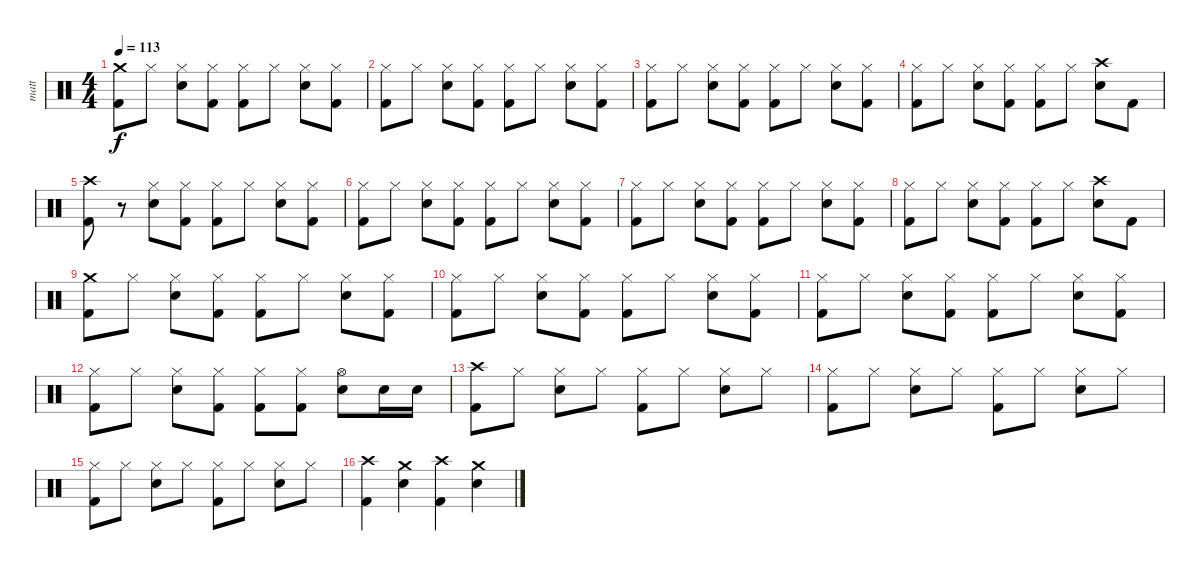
\track ("matt" "matt") {instrument percussion}
\staff {score}
\articulation defaults
\ts (4 4)
\tempo 113
\clef neutral
\ks c
("Crash medium (hit)" "Kick (hit) 2").8{dy f} "Hi-Hat (closed)".8 ("Hi-Hat (closed)" "Electric Snare (hit)").8 ("Hi-Hat (closed)" "Kick (hit) 2").8 ("Hi-Hat (closed)" "Kick (hit) 2").8 "Hi-Hat (closed)".8 ("Hi-Hat (closed)" "Electric Snare (hit)").8 ("Hi-Hat (closed)" "Kick (hit) 2").8 |
("Hi-Hat (closed)" "Kick (hit) 2").8 "Hi-Hat (closed)".8 ("Hi-Hat (closed)" "Electric Snare (hit)").8 ("Hi-Hat (closed)" "Kick (hit) 2").8 ("Hi-Hat (closed)" "Kick (hit) 2").8 "Hi-Hat (closed)".8 ("Hi-Hat (closed)" "Electric Snare (hit)").8 ("Hi-Hat (closed)" "Kick (hit) 2").8 |
("Hi-Hat (closed)" "Kick (hit) 2").8 "Hi-Hat (closed)".8 ("Hi-Hat (closed)" "Electric Snare (hit)").8 ("Hi-Hat (closed)" "Kick (hit) 2").8 ("Hi-Hat (closed)" "Kick (hit) 2").8 "Hi-Hat (closed)".8 ("Hi-Hat (closed)" "Electric Snare (hit)").8 ("Hi-Hat (closed)" "Kick (hit) 2").8 |
("Hi-Hat (closed)" "Kick (hit) 2").8 "Hi-Hat (closed)".8 ("Hi-Hat (closed)" "Electric Snare (hit)").8 ("Hi-Hat (closed)" "Kick (hit) 2").8 ("Hi-Hat (closed)" "Kick (hit) 2").8 "Hi-Hat (closed)".8 ("Crash high (hit)" "Electric Snare (hit)").8 "Kick (hit) 2".8 |
("Crash high (hit)" "Kick (hit) 2").8 r.8 ("Hi-Hat (closed)" "Electric Snare (hit)").8 ("Hi-Hat (closed)" "Kick (hit) 2").8 ("Hi-Hat (closed)" "Kick (hit) 2").8 "Hi-Hat (closed)".8 ("Hi-Hat (closed)" "Electric Snare (hit)").8 ("Hi-Hat (closed)" "Kick (hit) 2").8 |
("Hi-Hat (closed)" "Kick (hit) 2").8 "Hi-Hat (closed)".8 ("Hi-Hat (closed)" "Electric Snare (hit)").8 ("Hi-Hat (closed)" "Kick (hit) 2").8 ("Hi-Hat (closed)" "Kick (hit) 2").8 "Hi-Hat (closed)".8 ("Hi-Hat (closed)" "Electric Snare (hit)").8 ("Hi-Hat (closed)" "Kick (hit) 2").8 |
("Hi-Hat (closed)" "Kick (hit) 2").8 "Hi-Hat (closed)".8 ("Hi-Hat (closed)" "Electric Snare (hit)").8 ("Hi-Hat (closed)" "Kick (hit) 2").8 ("Hi-Hat (closed)" "Kick (hit) 2").8 "Hi-Hat (closed)".8 ("Hi-Hat (closed)" "Electric Snare (hit)").8 ("Hi-Hat (closed)" "Kick (hit) 2").8 |
("Hi-Hat (closed)" "Kick (hit) 2").8 "Hi-Hat (closed)".8 ("Hi-Hat (closed)" "Electric Snare (hit)").8 ("Hi-Hat (closed)" "Kick (hit) 2").8 ("Hi-Hat (closed)" "Kick (hit) 2").8 "Hi-Hat (closed)".8 ("Crash high (hit)" "Electric Snare (hit)").8 "Kick (hit) 2".8 |
("Crash medium (hit)" "Kick (hit) 2").8 "Hi-Hat (closed)".8 ("Hi-Hat (closed)" "Electric Snare (hit)").8 ("Hi-Hat (closed)" "Kick (hit) 2").8 ("Hi-Hat (closed)" "Kick (hit) 2").8 "Hi-Hat (closed)".8 ("Hi-Hat (closed)" "Electric Snare (hit)").8 ("Hi-Hat (closed)" "Kick (hit) 2").8 |
("Hi-Hat (closed)" "Kick (hit) 2").8 "Hi-Hat (closed)".8 ("Hi-Hat (closed)" "Electric Snare (hit)").8 ("Hi-Hat (closed)" "Kick (hit) 2").8 ("Hi-Hat (closed)" "Kick (hit) 2").8 "Hi-Hat (closed)".8 ("Hi-Hat (closed)" "Electric Snare (hit)").8 ("Hi-Hat (closed)" "Kick (hit) 2").8 |
("Hi-Hat (closed)" "Kick (hit) 2").8 "Hi-Hat (closed)".8 ("Hi-Hat (closed)" "Electric Snare (hit)").8 ("Hi-Hat (closed)" "Kick (hit) 2").8 ("Hi-Hat (closed)" "Kick (hit) 2").8 "Hi-Hat (closed)".8 ("Hi-Hat (closed)" "Electric Snare (hit)").8 ("Hi-Hat (closed)" "Kick (hit) 2").8 |
("Hi-Hat (closed)" "Kick (hit) 2").8 "Hi-Hat (closed)".8 ("Hi-Hat (closed)" "Electric Snare (hit)").8 ("Hi-Hat (closed)" "Kick (hit) 2").8 ("Hi-Hat (closed)" "Kick (hit) 2").8 ("Hi-Hat (closed)" "Kick (hit) 2").8 ("Hi-Hat (open)" "Electric Snare (hit)").8 "Electric Snare (hit)".16 "Electric Snare (hit)".16 |
("Crash high (hit)" "Kick (hit) 2").8 "Hi-Hat (closed)".8 ("Hi-Hat (closed)" "Electric Snare (hit)").8 "Hi-Hat (closed)".8 ("Hi-Hat (closed)" "Kick (hit) 2").8 "Hi-Hat (closed)".8 ("Hi-Hat (closed)" "Electric Snare (hit)").8 "Hi-Hat (closed)".8 |
("Hi-Hat (closed)" "Kick (hit) 2").8 "Hi-Hat (closed)".8 ("Hi-Hat (closed)" "Electric Snare (hit)").8 "Hi-Hat (closed)".8 ("Hi-Hat (closed)" "Kick (hit) 2").8 "Hi-Hat (closed)".8 ("Hi-Hat (closed)" "Electric Snare (hit)").8 "Hi-Hat (closed)".8 |
("Hi-Hat (closed)" "Kick (hit) 2").8 "Hi-Hat (closed)".8 ("Hi-Hat (closed)" "Electric Snare (hit)").8 "Hi-Hat (closed)".8 ("Hi-Hat (closed)" "Kick (hit) 2").8 "Hi-Hat (closed)".8 ("Hi-Hat (closed)" "Electric Snare (hit)").8 "Hi-Hat (closed)".8 |
("Crash high (hit)" "Kick (hit) 2").4 ("Crash medium (hit)" "Electric Snare (hit)").4 ("Crash high (hit)" "Kick (hit) 2").4 ("Crash medium (hit)" "Electric Snare (hit)").4
